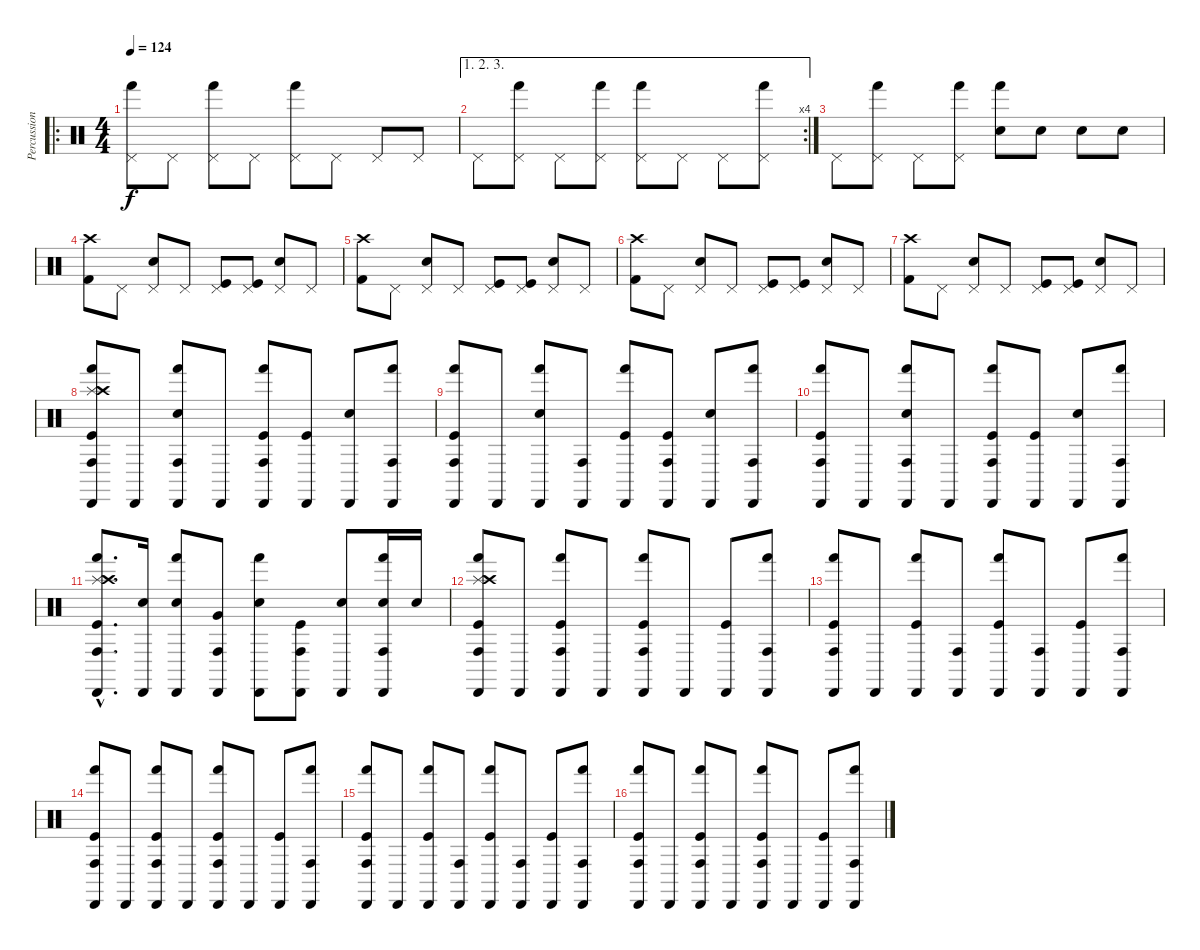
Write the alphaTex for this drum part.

\track ("Percussion" "Percussion") {instrument percussion}
\staff {score}
\articulation defaults
\ro
\ts (4 4)
\tempo 124
\clef neutral
\ks c
("Pedal Hi-Hat (hit)" "Hand (hit)").8{dy f} "Pedal Hi-Hat (hit)".8 ("Pedal Hi-Hat (hit)" "Hand (hit)").8 "Pedal Hi-Hat (hit)".8 ("Pedal Hi-Hat (hit)" "Hand (hit)").8 "Pedal Hi-Hat (hit)".8 "Pedal Hi-Hat (hit)".8 "Pedal Hi-Hat (hit)".8 |
\ae (1 2 3)
\rc 4 "Pedal Hi-Hat (hit)".8
("Pedal Hi-Hat (hit)" "Hand (hit)").8 "Pedal Hi-Hat (hit)".8 ("Pedal Hi-Hat (hit)" "Hand (hit)").8 ("Pedal Hi-Hat (hit)" "Hand (hit)").8 "Pedal Hi-Hat (hit)".8 "Pedal Hi-Hat (hit)".8 ("Pedal Hi-Hat (hit)" "Hand (hit)").8 |
"Pedal Hi-Hat (hit)".8 ("Pedal Hi-Hat (hit)" "Hand (hit)").8 "Pedal Hi-Hat (hit)".8 ("Pedal Hi-Hat (hit)" "Hand (hit)").8 ("Electric Snare (hit)" "Hand (hit)").8 "Electric Snare (hit)".8 "Electric Snare (hit)".8 "Electric Snare (hit)".8 |
("Crash high (hit)" "Kick (hit) 2").8 "Pedal Hi-Hat (hit)".8 ("Pedal Hi-Hat (hit)" "Electric Snare (hit)").8 "Pedal Hi-Hat (hit)".8 ("Pedal Hi-Hat (hit)" "Kick (hit)").8 ("Pedal Hi-Hat (hit)" "Kick (hit)").8 ("Pedal Hi-Hat (hit)" "Electric Snare (hit)").8 "Pedal Hi-Hat (hit)".8 |
("Crash high (hit)" "Kick (hit) 2").8 "Pedal Hi-Hat (hit)".8 ("Pedal Hi-Hat (hit)" "Electric Snare (hit)").8 "Pedal Hi-Hat (hit)".8 ("Pedal Hi-Hat (hit)" "Kick (hit)").8 ("Pedal Hi-Hat (hit)" "Kick (hit)").8 ("Pedal Hi-Hat (hit)" "Electric Snare (hit)").8 "Pedal Hi-Hat (hit)".8 |
("Crash high (hit)" "Kick (hit) 2").8 "Pedal Hi-Hat (hit)".8 ("Pedal Hi-Hat (hit)" "Electric Snare (hit)").8 "Pedal Hi-Hat (hit)".8 ("Pedal Hi-Hat (hit)" "Kick (hit)").8 ("Pedal Hi-Hat (hit)" "Kick (hit)").8 ("Pedal Hi-Hat (hit)" "Electric Snare (hit)").8 "Pedal Hi-Hat (hit)".8 |
("Crash high (hit)" "Kick (hit) 2").8 "Pedal Hi-Hat (hit)".8 ("Pedal Hi-Hat (hit)" "Electric Snare (hit)").8 "Pedal Hi-Hat (hit)".8 ("Pedal Hi-Hat (hit)" "Kick (hit)").8 ("Pedal Hi-Hat (hit)" "Kick (hit)").8 ("Pedal Hi-Hat (hit)" "Electric Snare (hit)").8 "Pedal Hi-Hat (hit)".8 |
("Cabasa (hit)" "Kick (hit)" "Hand (hit)" "Conga high (hit)" "Splash (hit)" "Crash high (hit)").8 "Cabasa (hit)".8 ("Cabasa (hit)" "Electric Snare (hit)" "Hand (hit)" "Conga high (hit)").8 "Cabasa (hit)".8 ("Cabasa (hit)" "Kick (hit)" "Hand (hit)" "Conga high (hit)").8 ("Cabasa (hit)" "Kick (hit)").8 ("Cabasa (hit)" "Electric Snare (hit)").8 ("Cabasa (hit)" "Hand (hit)" "Conga high (hit)").8 |
("Cabasa (hit)" "Kick (hit)" "Hand (hit)" "Conga high (hit)").8 "Cabasa (hit)".8 ("Cabasa (hit)" "Electric Snare (hit)" "Hand (hit)").8 ("Cabasa (hit)" "Conga high (hit)").8 ("Cabasa (hit)" "Kick (hit)" "Hand (hit)").8 ("Cabasa (hit)" "Kick (hit)" "Conga high (hit)").8 ("Cabasa (hit)" "Electric Snare (hit)").8 ("Cabasa (hit)" "Hand (hit)" "Conga high (hit)").8 |
("Cabasa (hit)" "Kick (hit)" "Hand (hit)" "Conga high (hit)").8 "Cabasa (hit)".8 ("Cabasa (hit)" "Electric Snare (hit)" "Hand (hit)" "Conga high (hit)").8 "Cabasa (hit)".8 ("Cabasa (hit)" "Kick (hit)" "Hand (hit)" "Conga high (hit)").8 ("Cabasa (hit)" "Kick (hit)").8 ("Cabasa (hit)" "Electric Snare (hit)").8 ("Cabasa (hit)" "Hand (hit)" "Conga high (hit)").8 |
("Cabasa (hit)"{hac} "Kick (hit)"{hac} "Hand (hit)"{hac} "Conga high (hit)"{hac} "Splash (hit)"{hac} "Crash high (hit)"{hac}).8{d} ("Cabasa (hit)" "Snare (hit) 2").16 ("Cabasa (hit)" "Snare (hit) 2" "Hand (hit)").8 ("Cabasa (hit)" "Very Low Tom (hit)" "Conga high (hit)").8 ("Cabasa (hit)" "Snare (hit) 2" "Hand (hit)").8 ("Cabasa (hit)" "Kick (hit)" "Conga high (hit)").8 ("Cabasa (hit)" "Snare (hit) 2").8 ("Cabasa (hit)" "Snare (hit) 2" "Hand (hit)" "Conga high (hit)").16 "Snare (hit) 2".16 |
("Cabasa (hit)" "Kick (hit)" "Hand (hit)" "Conga high (hit)" "Splash (hit)" "Crash high (hit)").8 "Cabasa (hit)".8 ("Cabasa (hit)" "Kick (hit)" "Hand (hit)" "Conga high (hit)").8 "Cabasa (hit)".8 ("Cabasa (hit)" "Kick (hit)" "Hand (hit)" "Conga high (hit)").8 "Cabasa (hit)".8 ("Cabasa (hit)" "Kick (hit)").8 ("Cabasa (hit)" "Hand (hit)" "Conga high (hit)").8 |
("Cabasa (hit)" "Kick (hit)" "Hand (hit)" "Conga high (hit)").8 "Cabasa (hit)".8 ("Cabasa (hit)" "Kick (hit)" "Hand (hit)").8 ("Cabasa (hit)" "Conga high (hit)").8 ("Cabasa (hit)" "Kick (hit)" "Hand (hit)").8 ("Cabasa (hit)" "Conga high (hit)").8 ("Cabasa (hit)" "Kick (hit)").8 ("Cabasa (hit)" "Hand (hit)" "Conga high (hit)").8 |
("Cabasa (hit)" "Kick (hit)" "Hand (hit)" "Conga high (hit)").8 "Cabasa (hit)".8 ("Cabasa (hit)" "Kick (hit)" "Hand (hit)" "Conga high (hit)").8 "Cabasa (hit)".8 ("Cabasa (hit)" "Kick (hit)" "Hand (hit)" "Conga high (hit)").8 "Cabasa (hit)".8 ("Cabasa (hit)" "Kick (hit)").8 ("Cabasa (hit)" "Hand (hit)" "Conga high (hit)").8 |
("Cabasa (hit)" "Kick (hit)" "Hand (hit)" "Conga high (hit)").8 "Cabasa (hit)".8 ("Cabasa (hit)" "Kick (hit)" "Hand (hit)").8 ("Cabasa (hit)" "Conga high (hit)").8 ("Cabasa (hit)" "Kick (hit)" "Hand (hit)").8 ("Cabasa (hit)" "Conga high (hit)").8 ("Cabasa (hit)" "Kick (hit)").8 ("Cabasa (hit)" "Hand (hit)" "Conga high (hit)").8 |
("Cabasa (hit)" "Kick (hit)" "Hand (hit)" "Conga high (hit)").8 "Cabasa (hit)".8 ("Cabasa (hit)" "Kick (hit)" "Hand (hit)" "Conga high (hit)").8 "Cabasa (hit)".8 ("Cabasa (hit)" "Kick (hit)" "Hand (hit)" "Conga high (hit)").8 "Cabasa (hit)".8 ("Cabasa (hit)" "Kick (hit)").8 ("Cabasa (hit)" "Hand (hit)" "Conga high (hit)").8
